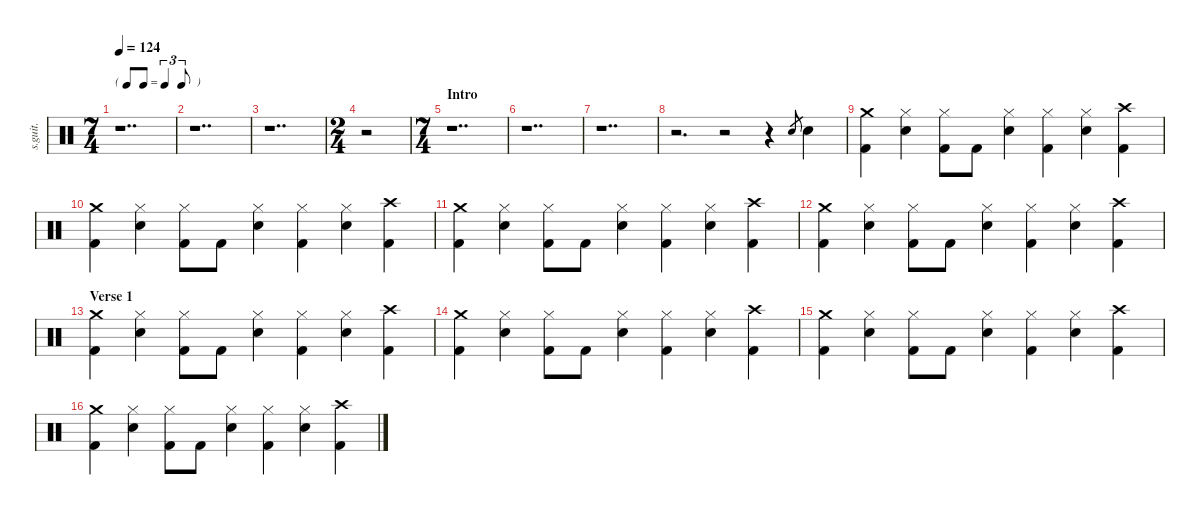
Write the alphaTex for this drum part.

\defaultSystemsLayout 4
\hideDynamics
\bracketExtendMode nobrackets
\track ("Nick Mason | Ludwig Drumkit | Drums" "s.guit.") {instrument percussion}
\staff {score}
\articulation defaults
\ts (7 4)
\beaming (8 2 2 2 2)
\tf triplet8th
\tempo 124
\clef neutral
\ks c
r.1{dd dy f} |
r.1{dd} |
r.1{dd} |
\ts (2 4)
\beaming (8 2 2 2 2)
r.2 |
\ts (7 4)
\beaming (8 2 2 2 2)
\section ("" "Intro")
r.1{dd} |
r.1{dd} |
r.1{dd} |
r.2{d} r.2 r.4 "Snare (hit) 2".8{gr} "Snare (hit) 2".4 |
("Crash medium (hit)" "Kick (hit) 2").4 ("Hi-Hat (closed)" "Snare (hit) 2").4 ("Hi-Hat (closed)" "Kick (hit) 2").8 "Kick (hit) 2".8 ("Hi-Hat (closed)" "Snare (hit) 2").4 ("Hi-Hat (closed)" "Kick (hit) 2").4 ("Hi-Hat (closed)" "Snare (hit) 2").4 ("Crash high (hit)" "Kick (hit) 2").4 |
("Crash medium (hit)" "Kick (hit) 2").4 ("Hi-Hat (closed)" "Snare (hit) 2").4 ("Hi-Hat (closed)" "Kick (hit) 2").8 "Kick (hit) 2".8 ("Hi-Hat (closed)" "Snare (hit) 2").4 ("Hi-Hat (closed)" "Kick (hit) 2").4 ("Hi-Hat (closed)" "Snare (hit) 2").4 ("Crash high (hit)" "Kick (hit) 2").4 |
("Crash medium (hit)" "Kick (hit) 2").4 ("Hi-Hat (closed)" "Snare (hit) 2").4 ("Hi-Hat (closed)" "Kick (hit) 2").8 "Kick (hit) 2".8 ("Hi-Hat (closed)" "Snare (hit) 2").4 ("Hi-Hat (closed)" "Kick (hit) 2").4 ("Hi-Hat (closed)" "Snare (hit) 2").4 ("Crash high (hit)" "Kick (hit) 2").4 |
("Crash medium (hit)" "Kick (hit) 2").4 ("Hi-Hat (closed)" "Snare (hit) 2").4 ("Hi-Hat (closed)" "Kick (hit) 2").8 "Kick (hit) 2".8 ("Hi-Hat (closed)" "Snare (hit) 2").4 ("Hi-Hat (closed)" "Kick (hit) 2").4 ("Hi-Hat (closed)" "Snare (hit) 2").4 ("Crash high (hit)" "Kick (hit) 2").4 |
\section ("" "Verse 1")
("Crash medium (hit)" "Kick (hit) 2").4 ("Hi-Hat (closed)" "Snare (hit) 2").4 ("Hi-Hat (closed)" "Kick (hit) 2").8 "Kick (hit) 2".8 ("Hi-Hat (closed)" "Snare (hit) 2").4 ("Hi-Hat (closed)" "Kick (hit) 2").4 ("Hi-Hat (closed)" "Snare (hit) 2").4 ("Crash high (hit)" "Kick (hit) 2").4 |
("Crash medium (hit)" "Kick (hit) 2").4 ("Hi-Hat (closed)" "Snare (hit) 2").4 ("Hi-Hat (closed)" "Kick (hit) 2").8 "Kick (hit) 2".8 ("Hi-Hat (closed)" "Snare (hit) 2").4 ("Hi-Hat (closed)" "Kick (hit) 2").4 ("Hi-Hat (closed)" "Snare (hit) 2").4 ("Crash high (hit)" "Kick (hit) 2").4 |
("Crash medium (hit)" "Kick (hit) 2").4 ("Hi-Hat (closed)" "Snare (hit) 2").4 ("Hi-Hat (closed)" "Kick (hit) 2").8 "Kick (hit) 2".8 ("Hi-Hat (closed)" "Snare (hit) 2").4 ("Hi-Hat (closed)" "Kick (hit) 2").4 ("Hi-Hat (closed)" "Snare (hit) 2").4 ("Crash high (hit)" "Kick (hit) 2").4 |
("Crash medium (hit)" "Kick (hit) 2").4 ("Hi-Hat (closed)" "Snare (hit) 2").4 ("Hi-Hat (closed)" "Kick (hit) 2").8 "Kick (hit) 2".8 ("Hi-Hat (closed)" "Snare (hit) 2").4 ("Hi-Hat (closed)" "Kick (hit) 2").4 ("Hi-Hat (closed)" "Snare (hit) 2").4 ("Crash high (hit)" "Kick (hit) 2").4
